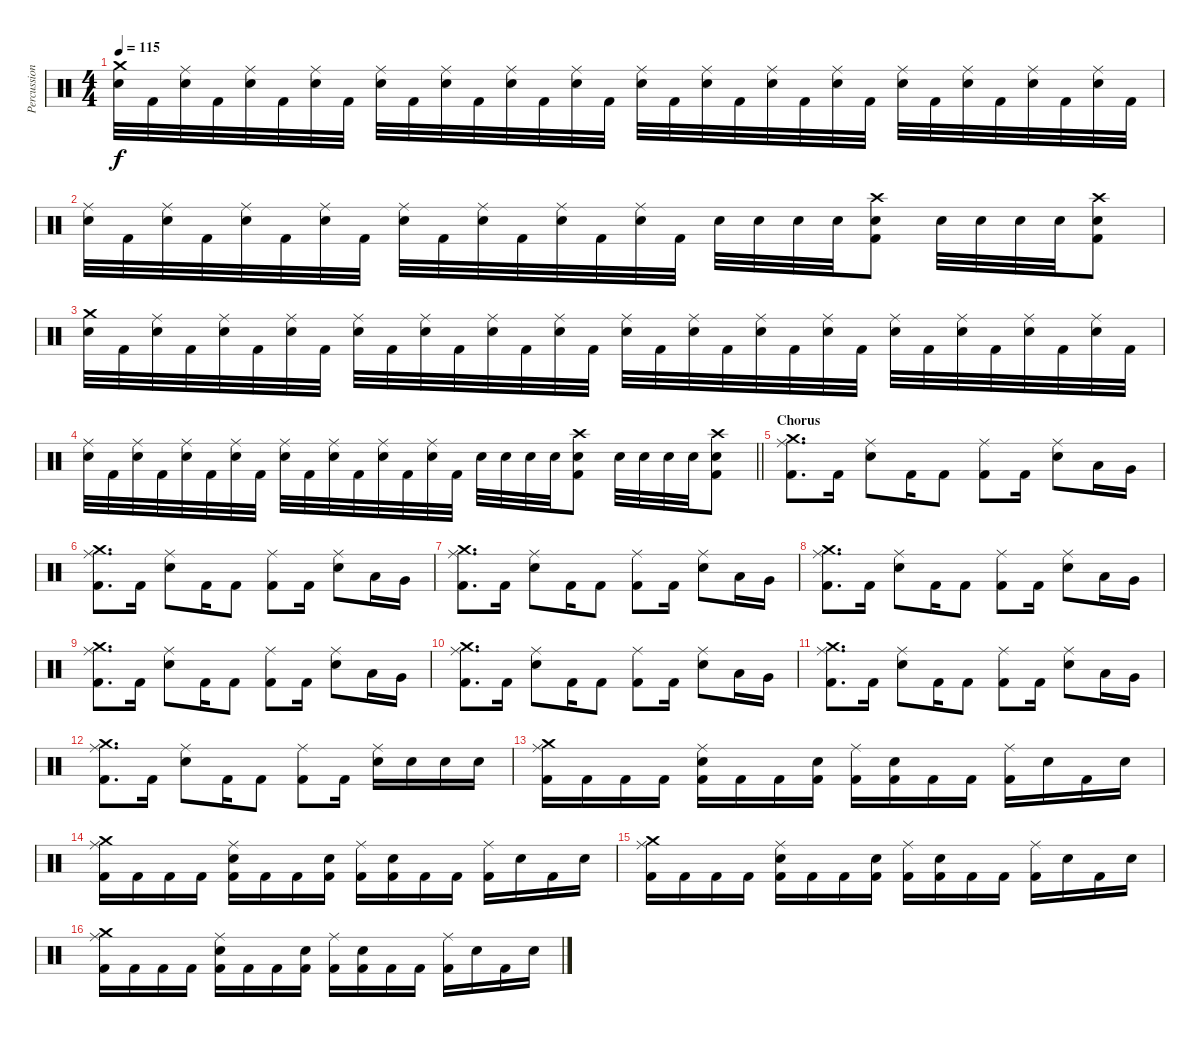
\track ("Percussion" "Percussion") {instrument percussion}
\staff {score}
\articulation defaults
\ts (4 4)
\tempo 115
\clef neutral
\ks c
("Crash medium (hit)" "Electric Snare (hit)").32{dy f} "Kick (hit) 2".32 ("Ride (middle)" "Electric Snare (hit)").32 "Kick (hit) 2".32 ("Ride (middle)" "Electric Snare (hit)").32 "Kick (hit) 2".32 ("Ride (middle)" "Electric Snare (hit)").32 "Kick (hit) 2".32 ("Ride (middle)" "Electric Snare (hit)").32 "Kick (hit) 2".32 ("Ride (middle)" "Electric Snare (hit)").32 "Kick (hit) 2".32 ("Ride (middle)" "Electric Snare (hit)").32 "Kick (hit) 2".32 ("Ride (middle)" "Electric Snare (hit)").32 "Kick (hit) 2".32 ("Ride (middle)" "Electric Snare (hit)").32 "Kick (hit) 2".32 ("Ride (middle)" "Electric Snare (hit)").32 "Kick (hit) 2".32 ("Ride (middle)" "Electric Snare (hit)").32 "Kick (hit) 2".32 ("Ride (middle)" "Electric Snare (hit)").32 "Kick (hit) 2".32 ("Ride (middle)" "Electric Snare (hit)").32 "Kick (hit) 2".32 ("Ride (middle)" "Electric Snare (hit)").32 "Kick (hit) 2".32 ("Ride (middle)" "Electric Snare (hit)").32 "Kick (hit) 2".32 ("Ride (middle)" "Electric Snare (hit)").32 "Kick (hit) 2".32 |
("Ride (middle)" "Electric Snare (hit)").32 "Kick (hit) 2".32 ("Ride (middle)" "Electric Snare (hit)").32 "Kick (hit) 2".32 ("Ride (middle)" "Electric Snare (hit)").32 "Kick (hit) 2".32 ("Ride (middle)" "Electric Snare (hit)").32 "Kick (hit) 2".32 ("Ride (middle)" "Electric Snare (hit)").32 "Kick (hit) 2".32 ("Ride (middle)" "Electric Snare (hit)").32 "Kick (hit) 2".32 ("Ride (middle)" "Electric Snare (hit)").32 "Kick (hit) 2".32 ("Ride (middle)" "Electric Snare (hit)").32 "Kick (hit) 2".32 "Electric Snare (hit)".32 "Electric Snare (hit)".32 "Electric Snare (hit)".32 "Electric Snare (hit)".32 ("Crash high (hit)" "Electric Snare (hit)" "Kick (hit) 2").8 "Electric Snare (hit)".32 "Electric Snare (hit)".32 "Electric Snare (hit)".32 "Electric Snare (hit)".32 ("Crash high (hit)" "Electric Snare (hit)" "Kick (hit) 2").8 |
("Crash medium (hit)" "Electric Snare (hit)").32 "Kick (hit) 2".32 ("Ride (middle)" "Electric Snare (hit)").32 "Kick (hit) 2".32 ("Ride (middle)" "Electric Snare (hit)").32 "Kick (hit) 2".32 ("Ride (middle)" "Electric Snare (hit)").32 "Kick (hit) 2".32 ("Ride (middle)" "Electric Snare (hit)").32 "Kick (hit) 2".32 ("Ride (middle)" "Electric Snare (hit)").32 "Kick (hit) 2".32 ("Ride (middle)" "Electric Snare (hit)").32 "Kick (hit) 2".32 ("Ride (middle)" "Electric Snare (hit)").32 "Kick (hit) 2".32 ("Ride (middle)" "Electric Snare (hit)").32 "Kick (hit) 2".32 ("Ride (middle)" "Electric Snare (hit)").32 "Kick (hit) 2".32 ("Ride (middle)" "Electric Snare (hit)").32 "Kick (hit) 2".32 ("Ride (middle)" "Electric Snare (hit)").32 "Kick (hit) 2".32 ("Ride (middle)" "Electric Snare (hit)").32 "Kick (hit) 2".32 ("Ride (middle)" "Electric Snare (hit)").32 "Kick (hit) 2".32 ("Ride (middle)" "Electric Snare (hit)").32 "Kick (hit) 2".32 ("Ride (middle)" "Electric Snare (hit)").32 "Kick (hit) 2".32 |
\barLineRight lightlight
("Ride (middle)" "Electric Snare (hit)").32 "Kick (hit) 2".32 ("Ride (middle)" "Electric Snare (hit)").32 "Kick (hit) 2".32 ("Ride (middle)" "Electric Snare (hit)").32 "Kick (hit) 2".32 ("Ride (middle)" "Electric Snare (hit)").32 "Kick (hit) 2".32 ("Ride (middle)" "Electric Snare (hit)").32 "Kick (hit) 2".32 ("Ride (middle)" "Electric Snare (hit)").32 "Kick (hit) 2".32 ("Ride (middle)" "Electric Snare (hit)").32 "Kick (hit) 2".32 ("Ride (middle)" "Electric Snare (hit)").32 "Kick (hit) 2".32 "Electric Snare (hit)".32 "Electric Snare (hit)".32 "Electric Snare (hit)".32 "Electric Snare (hit)".32 ("Crash high (hit)" "Electric Snare (hit)" "Kick (hit) 2").8 "Electric Snare (hit)".32 "Electric Snare (hit)".32 "Electric Snare (hit)".32 "Electric Snare (hit)".32 ("Crash high (hit)" "Electric Snare (hit)" "Kick (hit) 2").8 |
\section ("" "Chorus")
("Crash medium (hit)" "Ride (middle)" "Kick (hit) 2").8{d} "Kick (hit) 2".16 ("Ride (middle)" "Electric Snare (hit)").8 "Kick (hit) 2".16 "Kick (hit) 2".8 ("Ride (middle)" "Kick (hit) 2").8 "Kick (hit) 2".16 ("Ride (middle)" "Electric Snare (hit)").8 "Low Tom (hit)".16 "Very Low Tom (hit)".16 |
("Crash medium (hit)" "Ride (middle)" "Kick (hit) 2").8{d} "Kick (hit) 2".16 ("Ride (middle)" "Electric Snare (hit)").8 "Kick (hit) 2".16 "Kick (hit) 2".8 ("Ride (middle)" "Kick (hit) 2").8 "Kick (hit) 2".16 ("Ride (middle)" "Electric Snare (hit)").8 "Low Tom (hit)".16 "Very Low Tom (hit)".16 |
("Crash medium (hit)" "Ride (middle)" "Kick (hit) 2").8{d} "Kick (hit) 2".16 ("Ride (middle)" "Electric Snare (hit)").8 "Kick (hit) 2".16 "Kick (hit) 2".8 ("Ride (middle)" "Kick (hit) 2").8 "Kick (hit) 2".16 ("Ride (middle)" "Electric Snare (hit)").8 "Low Tom (hit)".16 "Very Low Tom (hit)".16 |
("Crash medium (hit)" "Ride (middle)" "Kick (hit) 2").8{d} "Kick (hit) 2".16 ("Ride (middle)" "Electric Snare (hit)").8 "Kick (hit) 2".16 "Kick (hit) 2".8 ("Ride (middle)" "Kick (hit) 2").8 "Kick (hit) 2".16 ("Ride (middle)" "Electric Snare (hit)").8 "Low Tom (hit)".16 "Very Low Tom (hit)".16 |
("Crash medium (hit)" "Ride (middle)" "Kick (hit) 2").8{d} "Kick (hit) 2".16 ("Ride (middle)" "Electric Snare (hit)").8 "Kick (hit) 2".16 "Kick (hit) 2".8 ("Ride (middle)" "Kick (hit) 2").8 "Kick (hit) 2".16 ("Ride (middle)" "Electric Snare (hit)").8 "Low Tom (hit)".16 "Very Low Tom (hit)".16 |
("Crash medium (hit)" "Ride (middle)" "Kick (hit) 2").8{d} "Kick (hit) 2".16 ("Ride (middle)" "Electric Snare (hit)").8 "Kick (hit) 2".16 "Kick (hit) 2".8 ("Ride (middle)" "Kick (hit) 2").8 "Kick (hit) 2".16 ("Ride (middle)" "Electric Snare (hit)").8 "Low Tom (hit)".16 "Very Low Tom (hit)".16 |
("Crash medium (hit)" "Ride (middle)" "Kick (hit) 2").8{d} "Kick (hit) 2".16 ("Ride (middle)" "Electric Snare (hit)").8 "Kick (hit) 2".16 "Kick (hit) 2".8 ("Ride (middle)" "Kick (hit) 2").8 "Kick (hit) 2".16 ("Ride (middle)" "Electric Snare (hit)").8 "Low Tom (hit)".16 "Very Low Tom (hit)".16 |
("Crash medium (hit)" "Ride (middle)" "Kick (hit) 2").8{d} "Kick (hit) 2".16 ("Ride (middle)" "Electric Snare (hit)").8 "Kick (hit) 2".16 "Kick (hit) 2".8 ("Ride (middle)" "Kick (hit) 2").8 "Kick (hit) 2".16 ("Ride (middle)" "Electric Snare (hit)").16 "Electric Snare (hit)".16 "Electric Snare (hit)".16 "Electric Snare (hit)".16 |
("Crash medium (hit)" "Ride (middle)" "Kick (hit) 2").16 "Kick (hit) 2".16 "Kick (hit) 2".16 "Kick (hit) 2".16 ("Ride (middle)" "Electric Snare (hit)" "Kick (hit) 2").16 "Kick (hit) 2".16 "Kick (hit) 2".16 ("Electric Snare (hit)" "Kick (hit) 2").16 ("Ride (middle)" "Kick (hit) 2").16 ("Electric Snare (hit)" "Kick (hit) 2").16 "Kick (hit) 2".16 "Kick (hit) 2".16 ("Ride (middle)" "Kick (hit) 2").16 "Electric Snare (hit)".16 "Kick (hit) 2".16 "Electric Snare (hit)".16 |
("Crash medium (hit)" "Ride (middle)" "Kick (hit) 2").16 "Kick (hit) 2".16 "Kick (hit) 2".16 "Kick (hit) 2".16 ("Ride (middle)" "Electric Snare (hit)" "Kick (hit) 2").16 "Kick (hit) 2".16 "Kick (hit) 2".16 ("Electric Snare (hit)" "Kick (hit) 2").16 ("Ride (middle)" "Kick (hit) 2").16 ("Electric Snare (hit)" "Kick (hit) 2").16 "Kick (hit) 2".16 "Kick (hit) 2".16 ("Ride (middle)" "Kick (hit) 2").16 "Electric Snare (hit)".16 "Kick (hit) 2".16 "Electric Snare (hit)".16 |
("Crash medium (hit)" "Ride (middle)" "Kick (hit) 2").16 "Kick (hit) 2".16 "Kick (hit) 2".16 "Kick (hit) 2".16 ("Ride (middle)" "Electric Snare (hit)" "Kick (hit) 2").16 "Kick (hit) 2".16 "Kick (hit) 2".16 ("Electric Snare (hit)" "Kick (hit) 2").16 ("Ride (middle)" "Kick (hit) 2").16 ("Electric Snare (hit)" "Kick (hit) 2").16 "Kick (hit) 2".16 "Kick (hit) 2".16 ("Ride (middle)" "Kick (hit) 2").16 "Electric Snare (hit)".16 "Kick (hit) 2".16 "Electric Snare (hit)".16 |
("Crash medium (hit)" "Ride (middle)" "Kick (hit) 2").16 "Kick (hit) 2".16 "Kick (hit) 2".16 "Kick (hit) 2".16 ("Ride (middle)" "Electric Snare (hit)" "Kick (hit) 2").16 "Kick (hit) 2".16 "Kick (hit) 2".16 ("Electric Snare (hit)" "Kick (hit) 2").16 ("Ride (middle)" "Kick (hit) 2").16 ("Electric Snare (hit)" "Kick (hit) 2").16 "Kick (hit) 2".16 "Kick (hit) 2".16 ("Ride (middle)" "Kick (hit) 2").16 "Electric Snare (hit)".16 "Kick (hit) 2".16 "Electric Snare (hit)".16
